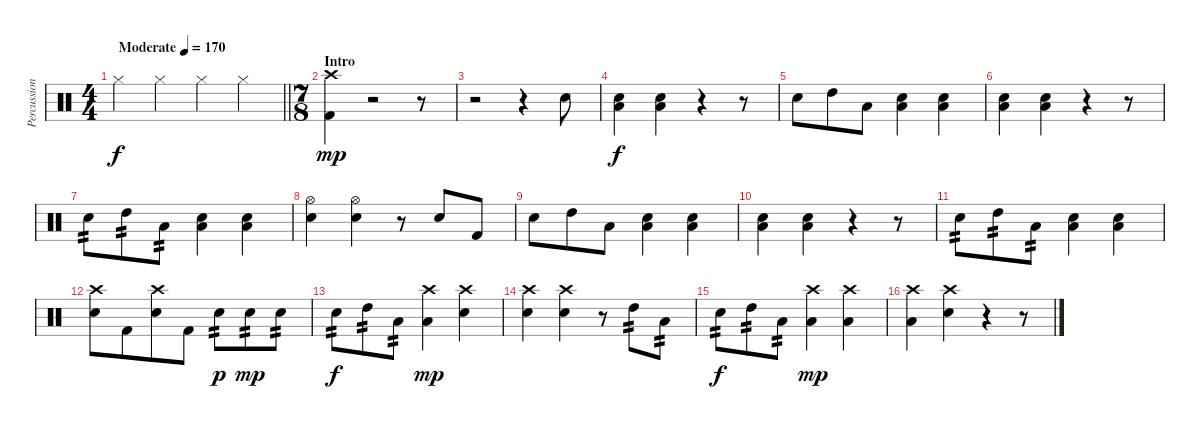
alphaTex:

\track ("Percussion" "Percussion") {instrument percussion}
\staff {score}
\articulation defaults
\ts (4 4)
\tempo (170 "Moderate")
\clef neutral
\barLineRight lightlight
\ks c "Hi-Hat (closed)".4{dy f} "Hi-Hat (closed)".4 "Hi-Hat (closed)".4 "Hi-Hat (closed)".4
|
\ts (7 8)
\section ("" "Intro")
("Crash high (hit)" "Kick (hit) 2").4{dy mp} r.2 r.8 |
r.2 r.4 "Electric Snare (hit)".8 |
("Electric Snare (hit)" "Low Floor Tom (hit)").4{dy f} ("Low Floor Tom (hit)" "Electric Snare (hit)").4 r.4 r.8 |
"Electric Snare (hit)".8 "High Tom (hit)".8 "Low Tom (hit)".8 ("Low Floor Tom (hit)" "Electric Snare (hit)").4 ("Low Floor Tom (hit)" "Electric Snare (hit)").4 |
("Electric Snare (hit)" "Low Floor Tom (hit)").4 ("Low Floor Tom (hit)" "Electric Snare (hit)").4 r.4 r.8 |
"Electric Snare (hit)".8{tp 2} "High Tom (hit)".8{tp 2} "Low Tom (hit)".8{tp 2} ("Low Floor Tom (hit)" "Electric Snare (hit)").4 ("Low Floor Tom (hit)" "Electric Snare (hit)").4 |
("Hi-Hat (open)" "Electric Snare (hit)").4 ("Hi-Hat (open)" "Electric Snare (hit)").4 r.8 "Electric Snare (hit)".8 "Kick (hit) 2".8 |
"Electric Snare (hit)".8 "High Tom (hit)".8 "Low Tom (hit)".8 ("Low Floor Tom (hit)" "Electric Snare (hit)").4 ("Low Floor Tom (hit)" "Electric Snare (hit)").4 |
("Electric Snare (hit)" "Low Floor Tom (hit)").4 ("Low Floor Tom (hit)" "Electric Snare (hit)").4 r.4 r.8 |
"Electric Snare (hit)".8{tp 2} "High Tom (hit)".8{tp 2} "Low Tom (hit)".8{tp 2} ("Low Floor Tom (hit)" "Electric Snare (hit)").4 ("Low Floor Tom (hit)" "Electric Snare (hit)").4 |
("Crash high (hit)" "Electric Snare (hit)").8 "Kick (hit) 2".8 ("Crash high (hit)" "Electric Snare (hit)").8 "Kick (hit) 2".8 "Electric Snare (hit)".8{tp 2 dy p} "Electric Snare (hit)".8{tp 2 dy mp} "Electric Snare (hit)".8{tp 2} |
"Electric Snare (hit)".8{tp 2 dy f} "High Tom (hit)".8{tp 2} "Low Tom (hit)".8{tp 2} ("Crash high (hit)" "Low Floor Tom (hit)").4{dy mp} ("Crash high (hit)" "Electric Snare (hit)").4 |
("Crash high (hit)" "Electric Snare (hit)").4 ("Crash high (hit)" "Electric Snare (hit)").4 r.8 "High Tom (hit)".8{tp 2} "Low Tom (hit)".8{tp 2} |
"Electric Snare (hit)".8{tp 2 dy f} "High Tom (hit)".8{tp 2} "Low Tom (hit)".8{tp 2} ("Crash high (hit)" "Low Floor Tom (hit)").4{dy mp} ("Crash high (hit)" "Low Floor Tom (hit)").4 |
("Crash high (hit)" "Low Floor Tom (hit)").4 ("Crash high (hit)" "Electric Snare (hit)").4 r.4 r.8
